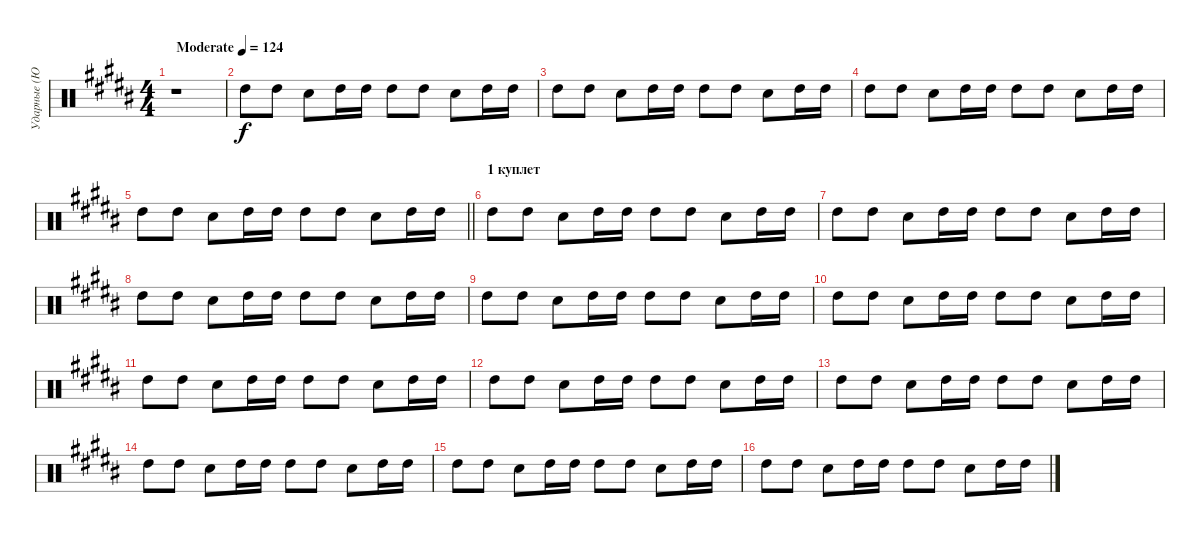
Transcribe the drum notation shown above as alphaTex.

\track ("Ударные (Ю.Борзов)" "Ударные (Ю") {instrument percussion}
\staff {score}
\articulation defaults
\ts (4 4)
\tempo (124 "Moderate")
\clef neutral
\ks g#minor
r.1{dy f} |
"High Tom (hit)".8 "High Tom (hit)".8 "Snare (hit) 2".8 "High Tom (hit)".16 "High Tom (hit)".16 "High Tom (hit)".8 "High Tom (hit)".8 "Snare (hit) 2".8 "High Tom (hit)".16 "High Tom (hit)".16 |
"High Tom (hit)".8 "High Tom (hit)".8 "Snare (hit) 2".8 "High Tom (hit)".16 "High Tom (hit)".16 "High Tom (hit)".8 "High Tom (hit)".8 "Snare (hit) 2".8 "High Tom (hit)".16 "High Tom (hit)".16 |
"High Tom (hit)".8 "High Tom (hit)".8 "Snare (hit) 2".8 "High Tom (hit)".16 "High Tom (hit)".16 "High Tom (hit)".8 "High Tom (hit)".8 "Snare (hit) 2".8 "High Tom (hit)".16 "High Tom (hit)".16 |
\barLineRight lightlight "High Tom (hit)".8 "High Tom (hit)".8 "Snare (hit) 2".8 "High Tom (hit)".16 "High Tom (hit)".16 "High Tom (hit)".8 "High Tom (hit)".8 "Snare (hit) 2".8 "High Tom (hit)".16 "High Tom (hit)".16
|
\section ("" "1 куплет")
"High Tom (hit)".8 "High Tom (hit)".8 "Snare (hit) 2".8 "High Tom (hit)".16 "High Tom (hit)".16 "High Tom (hit)".8 "High Tom (hit)".8 "Snare (hit) 2".8 "High Tom (hit)".16 "High Tom (hit)".16 |
"High Tom (hit)".8 "High Tom (hit)".8 "Snare (hit) 2".8 "High Tom (hit)".16 "High Tom (hit)".16 "High Tom (hit)".8 "High Tom (hit)".8 "Snare (hit) 2".8 "High Tom (hit)".16 "High Tom (hit)".16 |
"High Tom (hit)".8 "High Tom (hit)".8 "Snare (hit) 2".8 "High Tom (hit)".16 "High Tom (hit)".16 "High Tom (hit)".8 "High Tom (hit)".8 "Snare (hit) 2".8 "High Tom (hit)".16 "High Tom (hit)".16 |
"High Tom (hit)".8 "High Tom (hit)".8 "Snare (hit) 2".8 "High Tom (hit)".16 "High Tom (hit)".16 "High Tom (hit)".8 "High Tom (hit)".8 "Snare (hit) 2".8 "High Tom (hit)".16 "High Tom (hit)".16 |
"High Tom (hit)".8 "High Tom (hit)".8 "Snare (hit) 2".8 "High Tom (hit)".16 "High Tom (hit)".16 "High Tom (hit)".8 "High Tom (hit)".8 "Snare (hit) 2".8 "High Tom (hit)".16 "High Tom (hit)".16 |
"High Tom (hit)".8 "High Tom (hit)".8 "Snare (hit) 2".8 "High Tom (hit)".16 "High Tom (hit)".16 "High Tom (hit)".8 "High Tom (hit)".8 "Snare (hit) 2".8 "High Tom (hit)".16 "High Tom (hit)".16 |
"High Tom (hit)".8 "High Tom (hit)".8 "Snare (hit) 2".8 "High Tom (hit)".16 "High Tom (hit)".16 "High Tom (hit)".8 "High Tom (hit)".8 "Snare (hit) 2".8 "High Tom (hit)".16 "High Tom (hit)".16 |
"High Tom (hit)".8 "High Tom (hit)".8 "Snare (hit) 2".8 "High Tom (hit)".16 "High Tom (hit)".16 "High Tom (hit)".8 "High Tom (hit)".8 "Snare (hit) 2".8 "High Tom (hit)".16 "High Tom (hit)".16 |
"High Tom (hit)".8 "High Tom (hit)".8 "Snare (hit) 2".8 "High Tom (hit)".16 "High Tom (hit)".16 "High Tom (hit)".8 "High Tom (hit)".8 "Snare (hit) 2".8 "High Tom (hit)".16 "High Tom (hit)".16 |
"High Tom (hit)".8 "High Tom (hit)".8 "Snare (hit) 2".8 "High Tom (hit)".16 "High Tom (hit)".16 "High Tom (hit)".8 "High Tom (hit)".8 "Snare (hit) 2".8 "High Tom (hit)".16 "High Tom (hit)".16 |
"High Tom (hit)".8 "High Tom (hit)".8 "Snare (hit) 2".8 "High Tom (hit)".16 "High Tom (hit)".16 "High Tom (hit)".8 "High Tom (hit)".8 "Snare (hit) 2".8 "High Tom (hit)".16 "High Tom (hit)".16
